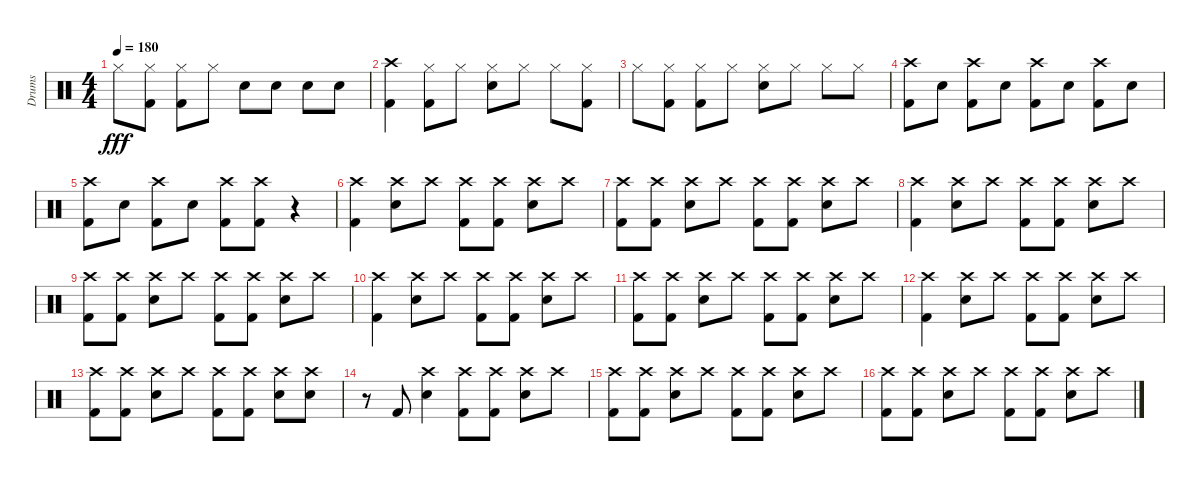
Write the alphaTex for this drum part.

\track ("Drums" "Drums") {instrument percussion}
\staff {score}
\articulation defaults
\ts (4 4)
\tempo 180
\clef neutral
\ks c "Hi-Hat (closed)".8{dy fff}
("Kick (hit) 2" "Hi-Hat (closed)").8 ("Kick (hit) 2" "Hi-Hat (closed)").8 "Hi-Hat (closed)".8 "Snare (hit) 2".8 "Snare (hit) 2".8 "Snare (hit) 2".8 "Snare (hit) 2".8 |
("Crash high (hit)" "Kick (hit) 2").4 ("Hi-Hat (closed)" "Kick (hit) 2").8 "Hi-Hat (closed)".8 ("Snare (hit) 2" "Hi-Hat (closed)").8 "Hi-Hat (closed)".8 "Hi-Hat (closed)".8 ("Kick (hit) 2" "Hi-Hat (closed)").8 |
"Hi-Hat (closed)".8 ("Kick (hit) 2" "Hi-Hat (closed)").8 ("Kick (hit) 2" "Hi-Hat (closed)").8 "Hi-Hat (closed)".8 ("Snare (hit) 2" "Hi-Hat (closed)").8 "Hi-Hat (closed)".8 "Hi-Hat (closed)".8 "Hi-Hat (closed)".8 |
("Crash high (hit)" "Kick (hit) 2").8 "Snare (hit) 2".8 ("Crash high (hit)" "Kick (hit) 2").8 "Snare (hit) 2".8 ("Crash high (hit)" "Kick (hit) 2").8 "Snare (hit) 2".8 ("Crash high (hit)" "Kick (hit) 2").8 "Snare (hit) 2".8 |
("Crash high (hit)" "Kick (hit) 2").8 "Snare (hit) 2".8 ("Crash high (hit)" "Kick (hit) 2").8 "Snare (hit) 2".8 ("Crash high (hit)" "Kick (hit) 2").8 ("Kick (hit) 2" "Crash high (hit)").8 r.4 |
("Kick (hit) 2" "Crash high (hit)").4 ("Crash high (hit)" "Snare (hit) 2").8 "Crash high (hit)".8 ("Crash high (hit)" "Kick (hit) 2").8 ("Crash high (hit)" "Kick (hit) 2").8 ("Crash high (hit)" "Snare (hit) 2").8 "Crash high (hit)".8 |
("Kick (hit) 2" "Crash high (hit)").8 ("Kick (hit) 2" "Crash high (hit)").8 ("Crash high (hit)" "Snare (hit) 2").8 "Crash high (hit)".8 ("Kick (hit) 2" "Crash high (hit)").8 ("Kick (hit) 2" "Crash high (hit)").8 ("Snare (hit) 2" "Crash high (hit)").8 "Crash high (hit)".8 |
("Kick (hit) 2" "Crash high (hit)").4 ("Crash high (hit)" "Snare (hit) 2").8 "Crash high (hit)".8 ("Crash high (hit)" "Kick (hit) 2").8 ("Crash high (hit)" "Kick (hit) 2").8 ("Crash high (hit)" "Snare (hit) 2").8 "Crash high (hit)".8 |
("Kick (hit) 2" "Crash high (hit)").8 ("Kick (hit) 2" "Crash high (hit)").8 ("Crash high (hit)" "Snare (hit) 2").8 "Crash high (hit)".8 ("Kick (hit) 2" "Crash high (hit)").8 ("Kick (hit) 2" "Crash high (hit)").8 ("Snare (hit) 2" "Crash high (hit)").8 "Crash high (hit)".8 |
("Kick (hit) 2" "Crash high (hit)").4 ("Crash high (hit)" "Snare (hit) 2").8 "Crash high (hit)".8 ("Crash high (hit)" "Kick (hit) 2").8 ("Crash high (hit)" "Kick (hit) 2").8 ("Crash high (hit)" "Snare (hit) 2").8 "Crash high (hit)".8 |
("Kick (hit) 2" "Crash high (hit)").8 ("Kick (hit) 2" "Crash high (hit)").8 ("Crash high (hit)" "Snare (hit) 2").8 "Crash high (hit)".8 ("Kick (hit) 2" "Crash high (hit)").8 ("Kick (hit) 2" "Crash high (hit)").8 ("Snare (hit) 2" "Crash high (hit)").8 "Crash high (hit)".8 |
("Kick (hit) 2" "Crash high (hit)").4 ("Crash high (hit)" "Snare (hit) 2").8 "Crash high (hit)".8 ("Crash high (hit)" "Kick (hit) 2").8 ("Crash high (hit)" "Kick (hit) 2").8 ("Crash high (hit)" "Snare (hit) 2").8 "Crash high (hit)".8 |
("Kick (hit) 2" "Crash high (hit)").8 ("Kick (hit) 2" "Crash high (hit)").8 ("Crash high (hit)" "Snare (hit) 2").8 "Crash high (hit)".8 ("Kick (hit) 2" "Crash high (hit)").8 ("Kick (hit) 2" "Crash high (hit)").8 ("Snare (hit) 2" "Crash high (hit)").8 ("Crash high (hit)" "Snare (hit) 2").8 |
r.8 "Kick (hit) 2".8 ("Snare (hit) 2" "Crash high (hit)").4 ("Kick (hit) 2" "Crash high (hit)").8 ("Kick (hit) 2" "Crash high (hit)").8 ("Snare (hit) 2" "Crash high (hit)").8 "Crash high (hit)".8 |
("Kick (hit) 2" "Crash high (hit)").8 ("Kick (hit) 2" "Crash high (hit)").8 ("Crash high (hit)" "Snare (hit) 2").8 "Crash high (hit)".8 ("Kick (hit) 2" "Crash high (hit)").8 ("Kick (hit) 2" "Crash high (hit)").8 ("Snare (hit) 2" "Crash high (hit)").8 "Crash high (hit)".8 |
("Kick (hit) 2" "Crash high (hit)").8 ("Kick (hit) 2" "Crash high (hit)").8 ("Crash high (hit)" "Snare (hit) 2").8 "Crash high (hit)".8 ("Kick (hit) 2" "Crash high (hit)").8 ("Kick (hit) 2" "Crash high (hit)").8 ("Snare (hit) 2" "Crash high (hit)").8 "Crash high (hit)".8
